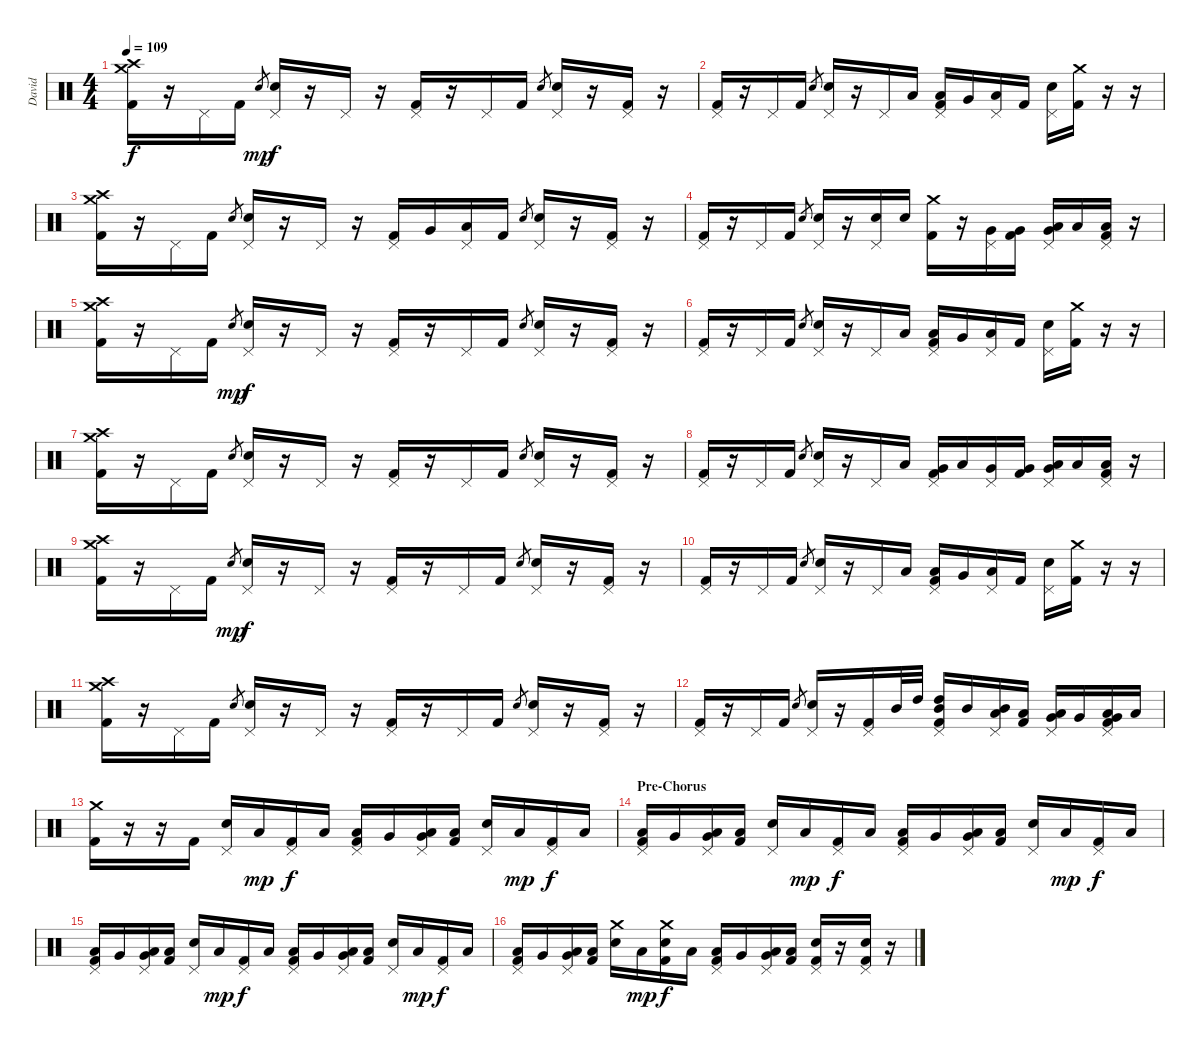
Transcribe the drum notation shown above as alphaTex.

\track ("David" "David") {instrument percussion}
\staff {score}
\articulation defaults
\ts (4 4)
\tempo 109
\clef neutral
\ks c
("Crash medium (hit)" "Crash high (hit)" "Kick (hit) 2").16{dy f} r.16 "Pedal Hi-Hat (hit)".16 "Kick (hit) 2".16 "Snare (hit) 2".8{gr dy mp} ("Pedal Hi-Hat (hit)" "Snare (hit) 2").16{dy f} r.16 "Pedal Hi-Hat (hit)".16 r.16 ("Pedal Hi-Hat (hit)" "Kick (hit) 2").16 r.16 "Pedal Hi-Hat (hit)".16 "Kick (hit) 2".16 "Snare (hit) 2".8{gr} ("Pedal Hi-Hat (hit)" "Snare (hit) 2").16 r.16 ("Pedal Hi-Hat (hit)" "Kick (hit) 2").16 r.16 |
("Pedal Hi-Hat (hit)" "Kick (hit) 2").16 r.16 "Pedal Hi-Hat (hit)".16 "Kick (hit) 2".16 "Snare (hit) 2".8{gr} ("Pedal Hi-Hat (hit)" "Snare (hit) 2").16 r.16 "Pedal Hi-Hat (hit)".16 "Low Tom (hit)".16 ("Pedal Hi-Hat (hit)" "Low Tom (hit)" "Kick (hit) 2").16 "Very Low Tom (hit)".16 ("Pedal Hi-Hat (hit)" "Low Floor Tom (hit)").16 "Kick (hit) 2".16 ("Pedal Hi-Hat (hit)" "Snare (hit) 2").16 ("Crash medium (hit)" "Kick (hit) 2").16 r.16 r.16 |
("Crash medium (hit)" "Crash high (hit)" "Kick (hit) 2").16 r.16 "Pedal Hi-Hat (hit)".16 "Kick (hit) 2".16 "Snare (hit) 2".8{gr} ("Pedal Hi-Hat (hit)" "Snare (hit) 2").16 r.16 "Pedal Hi-Hat (hit)".16 r.16 ("Pedal Hi-Hat (hit)" "Kick (hit) 2").16 "Very Low Tom (hit)".16 ("Pedal Hi-Hat (hit)" "Low Floor Tom (hit)").16 "Kick (hit) 2".16 "Snare (hit) 2".8{gr} ("Pedal Hi-Hat (hit)" "Snare (hit) 2").16 r.16 ("Pedal Hi-Hat (hit)" "Kick (hit) 2").16 r.16 |
("Pedal Hi-Hat (hit)" "Kick (hit) 2").16 r.16 "Pedal Hi-Hat (hit)".16 "Kick (hit) 2".16 "Snare (hit) 2".8{gr} ("Pedal Hi-Hat (hit)" "Snare (hit) 2").16 r.16 ("Pedal Hi-Hat (hit)" "Snare (hit) 2").16 "Snare (hit) 2".16 ("Crash medium (hit)" "Kick (hit) 2").16 r.16 ("Pedal Hi-Hat (hit)" "Very Low Tom (hit)").16 ("Very Low Tom (hit)" "Kick (hit) 2").16 ("Pedal Hi-Hat (hit)" "Very Low Tom (hit)" "Low Floor Tom (hit)").16 "Low Floor Tom (hit)".16 ("Pedal Hi-Hat (hit)" "Low Floor Tom (hit)" "Kick (hit) 2").16 r.16 |
("Crash medium (hit)" "Crash high (hit)" "Kick (hit) 2").16 r.16 "Pedal Hi-Hat (hit)".16 "Kick (hit) 2".16 "Snare (hit) 2".8{gr dy mp} ("Pedal Hi-Hat (hit)" "Snare (hit) 2").16{dy f} r.16 "Pedal Hi-Hat (hit)".16 r.16 ("Pedal Hi-Hat (hit)" "Kick (hit) 2").16 r.16 "Pedal Hi-Hat (hit)".16 "Kick (hit) 2".16 "Snare (hit) 2".8{gr} ("Pedal Hi-Hat (hit)" "Snare (hit) 2").16 r.16 ("Pedal Hi-Hat (hit)" "Kick (hit) 2").16 r.16 |
("Pedal Hi-Hat (hit)" "Kick (hit) 2").16 r.16 "Pedal Hi-Hat (hit)".16 "Kick (hit) 2".16 "Snare (hit) 2".8{gr} ("Pedal Hi-Hat (hit)" "Snare (hit) 2").16 r.16 "Pedal Hi-Hat (hit)".16 "Low Tom (hit)".16 ("Pedal Hi-Hat (hit)" "Low Tom (hit)" "Kick (hit) 2").16 "Very Low Tom (hit)".16 ("Pedal Hi-Hat (hit)" "Low Floor Tom (hit)").16 "Kick (hit) 2".16 ("Pedal Hi-Hat (hit)" "Snare (hit) 2").16 ("Crash medium (hit)" "Kick (hit) 2").16 r.16 r.16 |
("Crash medium (hit)" "Crash high (hit)" "Kick (hit) 2").16 r.16 "Pedal Hi-Hat (hit)".16 "Kick (hit) 2".16 "Snare (hit) 2".8{gr} ("Pedal Hi-Hat (hit)" "Snare (hit) 2").16 r.16 "Pedal Hi-Hat (hit)".16 r.16 ("Pedal Hi-Hat (hit)" "Kick (hit) 2").16 r.16 "Pedal Hi-Hat (hit)".16 "Kick (hit) 2".16 "Snare (hit) 2".8{gr} ("Pedal Hi-Hat (hit)" "Snare (hit) 2").16 r.16 ("Pedal Hi-Hat (hit)" "Kick (hit) 2").16 r.16 |
("Pedal Hi-Hat (hit)" "Kick (hit) 2").16 r.16 "Pedal Hi-Hat (hit)".16 "Kick (hit) 2".16 "Snare (hit) 2".8{gr} ("Pedal Hi-Hat (hit)" "Snare (hit) 2").16 r.16 "Pedal Hi-Hat (hit)".16 "Low Tom (hit)".16 ("Pedal Hi-Hat (hit)" "Very Low Tom (hit)" "Kick (hit) 2").16 "Low Tom (hit)".16 ("Pedal Hi-Hat (hit)" "Very Low Tom (hit)").16 ("Very Low Tom (hit)" "Kick (hit) 2").16 ("Pedal Hi-Hat (hit)" "Very Low Tom (hit)" "Low Floor Tom (hit)").16 "Low Floor Tom (hit)".16 ("Pedal Hi-Hat (hit)" "Low Floor Tom (hit)" "Kick (hit) 2").16 r.16 |
("Crash medium (hit)" "Crash high (hit)" "Kick (hit) 2").16 r.16 "Pedal Hi-Hat (hit)".16 "Kick (hit) 2".16 "Snare (hit) 2".8{gr dy mp} ("Pedal Hi-Hat (hit)" "Snare (hit) 2").16{dy f} r.16 "Pedal Hi-Hat (hit)".16 r.16 ("Pedal Hi-Hat (hit)" "Kick (hit) 2").16 r.16 "Pedal Hi-Hat (hit)".16 "Kick (hit) 2".16 "Snare (hit) 2".8{gr} ("Pedal Hi-Hat (hit)" "Snare (hit) 2").16 r.16 ("Pedal Hi-Hat (hit)" "Kick (hit) 2").16 r.16 |
("Pedal Hi-Hat (hit)" "Kick (hit) 2").16 r.16 "Pedal Hi-Hat (hit)".16 "Kick (hit) 2".16 "Snare (hit) 2".8{gr} ("Pedal Hi-Hat (hit)" "Snare (hit) 2").16 r.16 "Pedal Hi-Hat (hit)".16 "Low Tom (hit)".16 ("Pedal Hi-Hat (hit)" "Low Tom (hit)" "Kick (hit) 2").16 "Very Low Tom (hit)".16 ("Pedal Hi-Hat (hit)" "Low Floor Tom (hit)").16 "Kick (hit) 2".16 ("Pedal Hi-Hat (hit)" "Snare (hit) 2").16 ("Crash medium (hit)" "Kick (hit) 2").16 r.16 r.16 |
("Crash medium (hit)" "Crash high (hit)" "Kick (hit) 2").16 r.16 "Pedal Hi-Hat (hit)".16 "Kick (hit) 2".16 "Snare (hit) 2".8{gr} ("Pedal Hi-Hat (hit)" "Snare (hit) 2").16 r.16 "Pedal Hi-Hat (hit)".16 r.16 ("Pedal Hi-Hat (hit)" "Kick (hit) 2").16 r.16 "Pedal Hi-Hat (hit)".16 "Kick (hit) 2".16 "Snare (hit) 2".8{gr} ("Pedal Hi-Hat (hit)" "Snare (hit) 2").16 r.16 ("Pedal Hi-Hat (hit)" "Kick (hit) 2").16 r.16 |
("Pedal Hi-Hat (hit)" "Kick (hit) 2").16 r.16 "Pedal Hi-Hat (hit)".16 "Kick (hit) 2".16 "Snare (hit) 2".8{gr} ("Pedal Hi-Hat (hit)" "Snare (hit) 2").16 r.16 ("Pedal Hi-Hat (hit)" "Kick (hit) 2").16 "Mid Tom (hit)".32 "High Tom (hit)".32 ("Pedal Hi-Hat (hit)" "High Tom (hit)" "Mid Tom (hit)" "Kick (hit) 2").16 "Mid Tom (hit)".16 ("Pedal Hi-Hat (hit)" "Low Tom (hit)" "Mid Tom (hit)").16 ("Low Tom (hit)" "Kick (hit) 2").16 ("Pedal Hi-Hat (hit)" "Very Low Tom (hit)" "Low Tom (hit)").16 "Very Low Tom (hit)".16 ("Pedal Hi-Hat (hit)" "Very Low Tom (hit)" "Low Floor Tom (hit)" "Kick (hit) 2").16 "Low Floor Tom (hit)".16 |
("Crash medium (hit)" "Kick (hit) 2").16 r.16 r.16 "Kick (hit) 2".16 ("Pedal Hi-Hat (hit)" "Snare (hit) 2").16 "Low Floor Tom (hit)".16{dy mp} ("Pedal Hi-Hat (hit)" "Kick (hit) 2").16{dy f} "Low Tom (hit)".16 ("Pedal Hi-Hat (hit)" "Low Tom (hit)" "Kick (hit) 2").16 "Very Low Tom (hit)".16 ("Pedal Hi-Hat (hit)" "Very Low Tom (hit)" "Low Floor Tom (hit)").16 ("Low Floor Tom (hit)" "Kick (hit) 2").16 ("Pedal Hi-Hat (hit)" "Snare (hit) 2").16 "Low Floor Tom (hit)".16{dy mp} ("Pedal Hi-Hat (hit)" "Kick (hit) 2").16{dy f} "Low Tom (hit)".16 |
\section ("" "Pre-Chorus")
("Pedal Hi-Hat (hit)" "Low Tom (hit)" "Kick (hit) 2").16 "Very Low Tom (hit)".16 ("Pedal Hi-Hat (hit)" "Very Low Tom (hit)" "Low Floor Tom (hit)").16 ("Low Floor Tom (hit)" "Kick (hit) 2").16 ("Pedal Hi-Hat (hit)" "Snare (hit) 2").16 "Low Floor Tom (hit)".16{dy mp} ("Pedal Hi-Hat (hit)" "Kick (hit) 2").16{dy f} "Low Tom (hit)".16 ("Pedal Hi-Hat (hit)" "Low Tom (hit)" "Kick (hit) 2").16 "Very Low Tom (hit)".16 ("Pedal Hi-Hat (hit)" "Very Low Tom (hit)" "Low Floor Tom (hit)").16 ("Low Floor Tom (hit)" "Kick (hit) 2").16 ("Pedal Hi-Hat (hit)" "Snare (hit) 2").16 "Low Floor Tom (hit)".16{dy mp} ("Pedal Hi-Hat (hit)" "Kick (hit) 2").16{dy f} "Low Tom (hit)".16 |
("Pedal Hi-Hat (hit)" "Low Tom (hit)" "Kick (hit) 2").16 "Very Low Tom (hit)".16 ("Pedal Hi-Hat (hit)" "Very Low Tom (hit)" "Low Floor Tom (hit)").16 ("Low Floor Tom (hit)" "Kick (hit) 2").16 ("Pedal Hi-Hat (hit)" "Snare (hit) 2").16 "Low Floor Tom (hit)".16{dy mp} ("Pedal Hi-Hat (hit)" "Kick (hit) 2").16{dy f} "Low Tom (hit)".16 ("Pedal Hi-Hat (hit)" "Low Tom (hit)" "Kick (hit) 2").16 "Very Low Tom (hit)".16 ("Pedal Hi-Hat (hit)" "Very Low Tom (hit)" "Low Floor Tom (hit)").16 ("Low Floor Tom (hit)" "Kick (hit) 2").16 ("Pedal Hi-Hat (hit)" "Snare (hit) 2").16 "Low Floor Tom (hit)".16{dy mp} ("Pedal Hi-Hat (hit)" "Kick (hit) 2").16{dy f} "Low Tom (hit)".16 |
("Pedal Hi-Hat (hit)" "Low Tom (hit)" "Kick (hit) 2").16 "Very Low Tom (hit)".16 ("Pedal Hi-Hat (hit)" "Very Low Tom (hit)" "Low Floor Tom (hit)").16 ("Low Floor Tom (hit)" "Kick (hit) 2").16 ("Crash medium (hit)" "Snare (hit) 2").16 "Low Floor Tom (hit)".16{dy mp} ("Crash medium (hit)" "Snare (hit) 2" "Kick (hit) 2").16{dy f} "Low Tom (hit)".16 ("Pedal Hi-Hat (hit)" "Low Tom (hit)" "Kick (hit) 2").16 "Very Low Tom (hit)".16 ("Pedal Hi-Hat (hit)" "Very Low Tom (hit)" "Low Floor Tom (hit)").16 ("Low Floor Tom (hit)" "Kick (hit) 2").16 ("Pedal Hi-Hat (hit)" "Snare (hit) 2" "Kick (hit) 2").16 r.16 ("Pedal Hi-Hat (hit)" "Snare (hit) 2" "Kick (hit) 2").16 r.16
